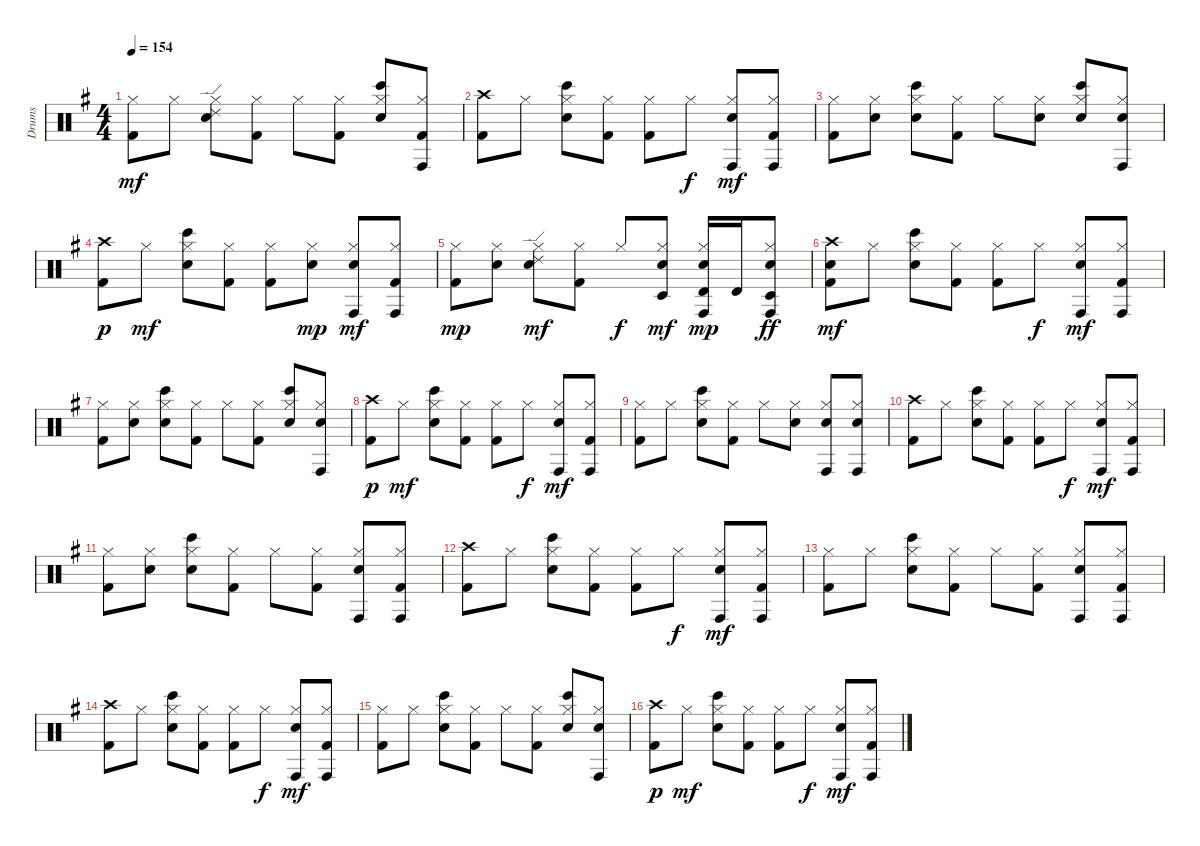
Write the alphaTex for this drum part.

\track ("Drums" "Drums") {instrument percussion}
\staff {score}
\articulation defaults
\ts (4 4)
\tempo 154
\clef neutral
\ks g
("Kick (hit) 2" "Hi-Hat (closed)").8{dy mf} "Hi-Hat (closed)".8 ("Electric Snare (hit)" "Hi-Hat (closed)" "Ride (edge) 2").8 ("Kick (hit) 2" "Hi-Hat (closed)").8 "Hi-Hat (closed)".8 ("Kick (hit) 2" "Hi-Hat (closed)").8 ("Electric Snare (hit)" "Hi-Hat (closed)" "Bongo High (hit)").8 ("Kick (hit) 2" "Hi-Hat (closed)" "Conga high (hit)").8 |
("Kick (hit) 2" "Crash high (hit)").8 "Hi-Hat (closed)".8 ("Electric Snare (hit)" "Hi-Hat (closed)" "Bongo High (hit)").8 ("Kick (hit) 2" "Hi-Hat (closed)").8 ("Kick (hit) 2" "Hi-Hat (closed)").8 "Hi-Hat (closed)".8{dy f} ("Electric Snare (hit)" "Hi-Hat (closed)" "Conga high (hit)").8{dy mf} ("Kick (hit) 2" "Hi-Hat (closed)" "Conga high (hit)").8 |
("Kick (hit) 2" "Hi-Hat (closed)").8 ("Electric Snare (hit)" "Hi-Hat (closed)").8 ("Electric Snare (hit)" "Hi-Hat (closed)" "Bongo High (hit)").8 ("Kick (hit) 2" "Hi-Hat (closed)").8 "Hi-Hat (closed)".8 ("Electric Snare (hit)" "Hi-Hat (closed)").8 ("Electric Snare (hit)" "Hi-Hat (closed)" "Bongo High (hit)").8 ("Electric Snare (hit)" "Hi-Hat (closed)" "Conga high (hit)").8 |
("Kick (hit) 2" "Crash high (hit)").8{dy p} "Hi-Hat (closed)".8{dy mf} ("Electric Snare (hit)" "Hi-Hat (closed)" "Bongo High (hit)").8 ("Kick (hit) 2" "Hi-Hat (closed)").8 ("Kick (hit) 2" "Hi-Hat (closed)").8 ("Electric Snare (hit)" "Hi-Hat (closed)").8{dy mp} ("Electric Snare (hit)" "Hi-Hat (closed)" "Conga high (hit)").8{dy mf} ("Kick (hit) 2" "Hi-Hat (closed)" "Conga high (hit)").8 |
("Kick (hit) 2" "Hi-Hat (closed)").8{dy mp} ("Electric Snare (hit)" "Hi-Hat (closed)").8 ("Electric Snare (hit)" "Hi-Hat (closed)" "Ride (edge) 2").8{dy mf} ("Kick (hit) 2" "Hi-Hat (closed)").8 "Hi-Hat (closed)".8{dy f} ("Electric Snare (hit)" "Hi-Hat (closed)" "Timbale low (hit)").8{dy mf} ("Electric Snare (hit)" "Hi-Hat (closed)" "Conga high (hit)" "Timbale high (hit)").16{dy mp} "Timbale high (hit)".16 ("Electric Snare (hit)" "Hi-Hat (closed)" "Conga high (hit)" "Timbale low (hit)").8{dy ff} |
("Kick (hit) 2" "Electric Snare (hit)" "Crash high (hit)").8{dy mf} "Hi-Hat (closed)".8 ("Electric Snare (hit)" "Hi-Hat (closed)" "Bongo High (hit)").8 ("Kick (hit) 2" "Hi-Hat (closed)").8 ("Kick (hit) 2" "Hi-Hat (closed)").8 "Hi-Hat (closed)".8{dy f} ("Electric Snare (hit)" "Hi-Hat (closed)" "Conga high (hit)").8{dy mf} ("Kick (hit) 2" "Hi-Hat (closed)" "Conga high (hit)").8 |
("Kick (hit) 2" "Hi-Hat (closed)").8 ("Electric Snare (hit)" "Hi-Hat (closed)").8 ("Electric Snare (hit)" "Hi-Hat (closed)" "Bongo High (hit)").8 ("Kick (hit) 2" "Hi-Hat (closed)").8 "Hi-Hat (closed)".8 ("Kick (hit) 2" "Hi-Hat (closed)").8 ("Electric Snare (hit)" "Hi-Hat (closed)" "Bongo High (hit)").8 ("Electric Snare (hit)" "Hi-Hat (closed)" "Conga high (hit)").8 |
("Kick (hit) 2" "Crash high (hit)").8{dy p} "Hi-Hat (closed)".8{dy mf} ("Electric Snare (hit)" "Hi-Hat (closed)" "Bongo High (hit)").8 ("Kick (hit) 2" "Hi-Hat (closed)").8 ("Kick (hit) 2" "Hi-Hat (closed)").8 "Hi-Hat (closed)".8{dy f} ("Electric Snare (hit)" "Hi-Hat (closed)" "Conga high (hit)").8{dy mf} ("Kick (hit) 2" "Hi-Hat (closed)" "Conga high (hit)").8 |
("Kick (hit) 2" "Hi-Hat (closed)").8 "Hi-Hat (closed)".8 ("Electric Snare (hit)" "Hi-Hat (closed)" "Bongo High (hit)").8 ("Kick (hit) 2" "Hi-Hat (closed)").8 "Hi-Hat (closed)".8 ("Electric Snare (hit)" "Hi-Hat (closed)").8 ("Electric Snare (hit)" "Hi-Hat (closed)" "Conga high (hit)").8 ("Electric Snare (hit)" "Hi-Hat (closed)" "Conga high (hit)").8 |
("Kick (hit) 2" "Crash high (hit)").8 "Hi-Hat (closed)".8 ("Electric Snare (hit)" "Hi-Hat (closed)" "Bongo High (hit)").8 ("Kick (hit) 2" "Hi-Hat (closed)").8 ("Kick (hit) 2" "Hi-Hat (closed)").8 "Hi-Hat (closed)".8{dy f} ("Electric Snare (hit)" "Hi-Hat (closed)" "Conga high (hit)").8{dy mf} ("Kick (hit) 2" "Hi-Hat (closed)" "Conga high (hit)").8 |
("Kick (hit) 2" "Hi-Hat (closed)").8 ("Electric Snare (hit)" "Hi-Hat (closed)").8 ("Electric Snare (hit)" "Hi-Hat (closed)" "Bongo High (hit)").8 ("Kick (hit) 2" "Hi-Hat (closed)").8 "Hi-Hat (closed)".8 ("Kick (hit) 2" "Hi-Hat (closed)").8 ("Electric Snare (hit)" "Hi-Hat (closed)" "Conga high (hit)").8 ("Kick (hit) 2" "Hi-Hat (closed)" "Conga high (hit)").8 |
("Kick (hit) 2" "Crash high (hit)").8 "Hi-Hat (closed)".8 ("Electric Snare (hit)" "Hi-Hat (closed)" "Bongo High (hit)").8 ("Kick (hit) 2" "Hi-Hat (closed)").8 ("Kick (hit) 2" "Hi-Hat (closed)").8 "Hi-Hat (closed)".8{dy f} ("Electric Snare (hit)" "Hi-Hat (closed)" "Conga high (hit)").8{dy mf} ("Kick (hit) 2" "Hi-Hat (closed)" "Conga high (hit)").8 |
("Kick (hit) 2" "Hi-Hat (closed)").8 "Hi-Hat (closed)".8 ("Electric Snare (hit)" "Hi-Hat (closed)" "Bongo High (hit)").8 ("Kick (hit) 2" "Hi-Hat (closed)").8 "Hi-Hat (closed)".8 ("Kick (hit) 2" "Hi-Hat (closed)").8 ("Electric Snare (hit)" "Hi-Hat (closed)" "Conga high (hit)").8 ("Kick (hit) 2" "Hi-Hat (closed)" "Conga high (hit)").8 |
("Kick (hit) 2" "Crash high (hit)").8 "Hi-Hat (closed)".8 ("Electric Snare (hit)" "Hi-Hat (closed)" "Bongo High (hit)").8 ("Kick (hit) 2" "Hi-Hat (closed)").8 ("Kick (hit) 2" "Hi-Hat (closed)").8 "Hi-Hat (closed)".8{dy f} ("Electric Snare (hit)" "Hi-Hat (closed)" "Conga high (hit)").8{dy mf} ("Kick (hit) 2" "Hi-Hat (closed)" "Conga high (hit)").8 |
("Kick (hit) 2" "Hi-Hat (closed)").8 "Hi-Hat (closed)".8 ("Electric Snare (hit)" "Hi-Hat (closed)" "Bongo High (hit)").8 ("Kick (hit) 2" "Hi-Hat (closed)").8 "Hi-Hat (closed)".8 ("Kick (hit) 2" "Hi-Hat (closed)").8 ("Electric Snare (hit)" "Hi-Hat (closed)" "Bongo High (hit)").8 ("Electric Snare (hit)" "Hi-Hat (closed)" "Conga high (hit)").8 |
("Kick (hit) 2" "Crash high (hit)").8{dy p} "Hi-Hat (closed)".8{dy mf} ("Electric Snare (hit)" "Hi-Hat (closed)" "Bongo High (hit)").8 ("Kick (hit) 2" "Hi-Hat (closed)").8 ("Kick (hit) 2" "Hi-Hat (closed)").8 "Hi-Hat (closed)".8{dy f} ("Electric Snare (hit)" "Hi-Hat (closed)" "Conga high (hit)").8{dy mf} ("Kick (hit) 2" "Hi-Hat (closed)" "Conga high (hit)").8
